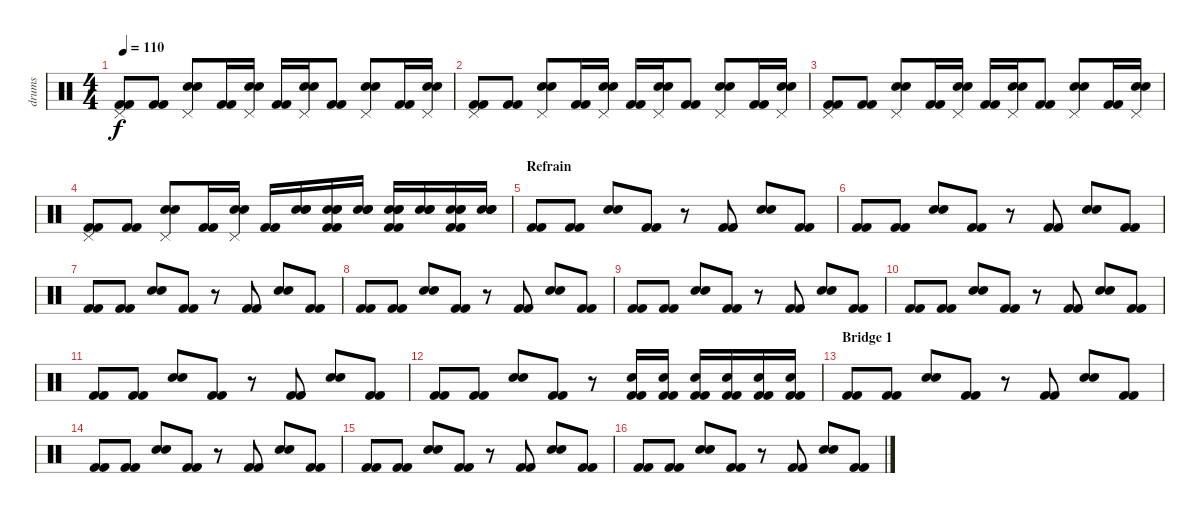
\track ("drums" "drums") {instrument percussion}
\staff {score}
\articulation defaults
\ts (4 4)
\tempo 110
\clef neutral
\ks c
("Pedal Hi-Hat (hit)" "Kick (hit) 2" "Kick (hit) 2").8{dy f} ("Kick (hit) 2" "Kick (hit) 2").8 ("Snare (hit) 2" "Snare (hit) 2" "Pedal Hi-Hat (hit)").8 ("Kick (hit) 2" "Kick (hit) 2").16 ("Snare (hit) 2" "Snare (hit) 2" "Pedal Hi-Hat (hit)").16 ("Kick (hit) 2" "Kick (hit) 2").16 ("Snare (hit) 2" "Snare (hit) 2" "Pedal Hi-Hat (hit)").16 ("Kick (hit) 2" "Kick (hit) 2").8 ("Snare (hit) 2" "Snare (hit) 2" "Pedal Hi-Hat (hit)").8 ("Kick (hit) 2" "Kick (hit) 2").16 ("Snare (hit) 2" "Snare (hit) 2" "Pedal Hi-Hat (hit)").16 |
("Pedal Hi-Hat (hit)" "Kick (hit) 2" "Kick (hit) 2").8 ("Kick (hit) 2" "Kick (hit) 2").8 ("Snare (hit) 2" "Snare (hit) 2" "Pedal Hi-Hat (hit)").8 ("Kick (hit) 2" "Kick (hit) 2").16 ("Snare (hit) 2" "Snare (hit) 2" "Pedal Hi-Hat (hit)").16 ("Kick (hit) 2" "Kick (hit) 2").16 ("Snare (hit) 2" "Snare (hit) 2" "Pedal Hi-Hat (hit)").16 ("Kick (hit) 2" "Kick (hit) 2").8 ("Snare (hit) 2" "Snare (hit) 2" "Pedal Hi-Hat (hit)").8 ("Kick (hit) 2" "Kick (hit) 2").16 ("Snare (hit) 2" "Snare (hit) 2" "Pedal Hi-Hat (hit)").16 |
("Pedal Hi-Hat (hit)" "Kick (hit) 2" "Kick (hit) 2").8 ("Kick (hit) 2" "Kick (hit) 2").8 ("Snare (hit) 2" "Snare (hit) 2" "Pedal Hi-Hat (hit)").8 ("Kick (hit) 2" "Kick (hit) 2").16 ("Snare (hit) 2" "Snare (hit) 2" "Pedal Hi-Hat (hit)").16 ("Kick (hit) 2" "Kick (hit) 2").16 ("Snare (hit) 2" "Snare (hit) 2" "Pedal Hi-Hat (hit)").16 ("Kick (hit) 2" "Kick (hit) 2").8 ("Snare (hit) 2" "Snare (hit) 2" "Pedal Hi-Hat (hit)").8 ("Kick (hit) 2" "Kick (hit) 2").16 ("Snare (hit) 2" "Snare (hit) 2" "Pedal Hi-Hat (hit)").16 |
("Pedal Hi-Hat (hit)" "Kick (hit) 2" "Kick (hit) 2").8 ("Kick (hit) 2" "Kick (hit) 2").8 ("Snare (hit) 2" "Snare (hit) 2" "Pedal Hi-Hat (hit)").8 ("Kick (hit) 2" "Kick (hit) 2").16 ("Snare (hit) 2" "Snare (hit) 2" "Pedal Hi-Hat (hit)").16 ("Kick (hit) 2" "Kick (hit) 2").16 ("Snare (hit) 2" "Snare (hit) 2" "Snare (hit) 2").16 ("Snare (hit) 2" "Snare (hit) 2" "Snare (hit) 2" "Kick (hit) 2" "Kick (hit) 2").16 ("Snare (hit) 2" "Snare (hit) 2" "Snare (hit) 2").16 ("Snare (hit) 2" "Snare (hit) 2" "Snare (hit) 2" "Kick (hit) 2" "Kick (hit) 2").16 ("Snare (hit) 2" "Snare (hit) 2" "Snare (hit) 2").16 ("Snare (hit) 2" "Snare (hit) 2" "Snare (hit) 2" "Kick (hit) 2" "Kick (hit) 2").16 ("Snare (hit) 2" "Snare (hit) 2" "Snare (hit) 2").16 |
\section ("" "Refrain")
("Kick (hit) 2" "Kick (hit) 2").8 ("Kick (hit) 2" "Kick (hit) 2").8 ("Snare (hit) 2" "Snare (hit) 2").8 ("Kick (hit) 2" "Kick (hit) 2").8 r.8 ("Kick (hit) 2" "Kick (hit) 2").8 ("Snare (hit) 2" "Snare (hit) 2").8 ("Kick (hit) 2" "Kick (hit) 2").8 |
("Kick (hit) 2" "Kick (hit) 2").8 ("Kick (hit) 2" "Kick (hit) 2").8 ("Snare (hit) 2" "Snare (hit) 2").8 ("Kick (hit) 2" "Kick (hit) 2").8 r.8 ("Kick (hit) 2" "Kick (hit) 2").8 ("Snare (hit) 2" "Snare (hit) 2").8 ("Kick (hit) 2" "Kick (hit) 2").8 |
("Kick (hit) 2" "Kick (hit) 2").8 ("Kick (hit) 2" "Kick (hit) 2").8 ("Snare (hit) 2" "Snare (hit) 2").8 ("Kick (hit) 2" "Kick (hit) 2").8 r.8 ("Kick (hit) 2" "Kick (hit) 2").8 ("Snare (hit) 2" "Snare (hit) 2").8 ("Kick (hit) 2" "Kick (hit) 2").8 |
("Kick (hit) 2" "Kick (hit) 2").8 ("Kick (hit) 2" "Kick (hit) 2").8 ("Snare (hit) 2" "Snare (hit) 2").8 ("Kick (hit) 2" "Kick (hit) 2").8 r.8 ("Kick (hit) 2" "Kick (hit) 2").8 ("Snare (hit) 2" "Snare (hit) 2").8 ("Kick (hit) 2" "Kick (hit) 2").8 |
("Kick (hit) 2" "Kick (hit) 2").8 ("Kick (hit) 2" "Kick (hit) 2").8 ("Snare (hit) 2" "Snare (hit) 2").8 ("Kick (hit) 2" "Kick (hit) 2").8 r.8 ("Kick (hit) 2" "Kick (hit) 2").8 ("Snare (hit) 2" "Snare (hit) 2").8 ("Kick (hit) 2" "Kick (hit) 2").8 |
("Kick (hit) 2" "Kick (hit) 2").8 ("Kick (hit) 2" "Kick (hit) 2").8 ("Snare (hit) 2" "Snare (hit) 2").8 ("Kick (hit) 2" "Kick (hit) 2").8 r.8 ("Kick (hit) 2" "Kick (hit) 2").8 ("Snare (hit) 2" "Snare (hit) 2").8 ("Kick (hit) 2" "Kick (hit) 2").8 |
("Kick (hit) 2" "Kick (hit) 2").8 ("Kick (hit) 2" "Kick (hit) 2").8 ("Snare (hit) 2" "Snare (hit) 2").8 ("Kick (hit) 2" "Kick (hit) 2").8 r.8 ("Kick (hit) 2" "Kick (hit) 2").8 ("Snare (hit) 2" "Snare (hit) 2").8 ("Kick (hit) 2" "Kick (hit) 2").8 |
("Kick (hit) 2" "Kick (hit) 2").8 ("Kick (hit) 2" "Kick (hit) 2").8 ("Snare (hit) 2" "Snare (hit) 2").8 ("Kick (hit) 2" "Kick (hit) 2").8 r.8 ("Snare (hit) 2" "Kick (hit) 2" "Kick (hit) 2").16 ("Snare (hit) 2" "Kick (hit) 2" "Kick (hit) 2").16 ("Snare (hit) 2" "Kick (hit) 2" "Kick (hit) 2").16 ("Snare (hit) 2" "Kick (hit) 2" "Kick (hit) 2").16 ("Snare (hit) 2" "Kick (hit) 2" "Kick (hit) 2").16 ("Snare (hit) 2" "Kick (hit) 2" "Kick (hit) 2").16 |
\section ("" "Bridge 1")
("Kick (hit) 2" "Kick (hit) 2").8 ("Kick (hit) 2" "Kick (hit) 2").8 ("Snare (hit) 2" "Snare (hit) 2").8 ("Kick (hit) 2" "Kick (hit) 2").8 r.8 ("Kick (hit) 2" "Kick (hit) 2").8 ("Snare (hit) 2" "Snare (hit) 2").8 ("Kick (hit) 2" "Kick (hit) 2").8 |
("Kick (hit) 2" "Kick (hit) 2").8 ("Kick (hit) 2" "Kick (hit) 2").8 ("Snare (hit) 2" "Snare (hit) 2").8 ("Kick (hit) 2" "Kick (hit) 2").8 r.8 ("Kick (hit) 2" "Kick (hit) 2").8 ("Snare (hit) 2" "Snare (hit) 2").8 ("Kick (hit) 2" "Kick (hit) 2").8 |
("Kick (hit) 2" "Kick (hit) 2").8 ("Kick (hit) 2" "Kick (hit) 2").8 ("Snare (hit) 2" "Snare (hit) 2").8 ("Kick (hit) 2" "Kick (hit) 2").8 r.8 ("Kick (hit) 2" "Kick (hit) 2").8 ("Snare (hit) 2" "Snare (hit) 2").8 ("Kick (hit) 2" "Kick (hit) 2").8 |
("Kick (hit) 2" "Kick (hit) 2").8 ("Kick (hit) 2" "Kick (hit) 2").8 ("Snare (hit) 2" "Snare (hit) 2").8 ("Kick (hit) 2" "Kick (hit) 2").8 r.8 ("Kick (hit) 2" "Kick (hit) 2").8 ("Snare (hit) 2" "Snare (hit) 2").8 ("Kick (hit) 2" "Kick (hit) 2").8
